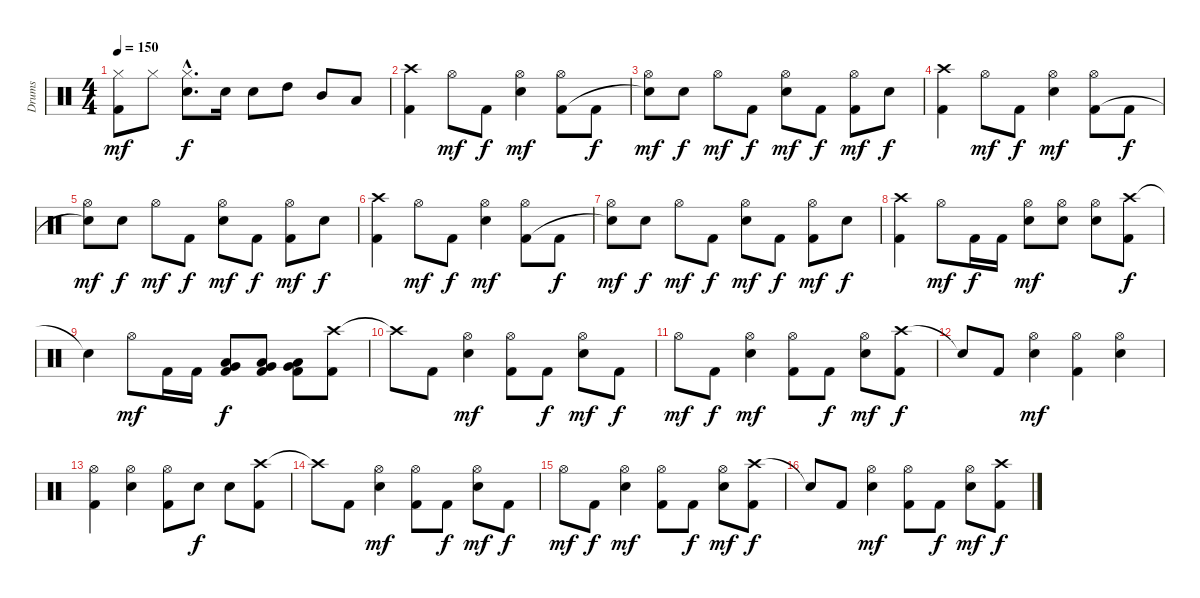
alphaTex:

\track ("Drums" "Drums") {instrument percussion}
\staff {score}
\articulation defaults
\ts (4 4)
\tempo 150
\clef neutral
\ks c
("Hi-Hat (closed)" "Kick (hit) 2").8{dy mf} "Hi-Hat (closed)".8 ("Hi-Hat (closed)"{hac} "Electric Snare (hit)"{hac}).8{d dy f} "Electric Snare (hit)".16 "Electric Snare (hit)".8 "High Tom (hit)".8 "Mid Tom (hit)".8 "Low Tom (hit)".8 |
("Crash high (hit)" "Kick (hit) 2").4 "Hi-Hat (open)".8{dy mf} "Kick (hit) 2".8{dy f} ("Hi-Hat (open)" "Electric Snare (hit)").4{dy mf} ("Hi-Hat (open)" "Kick (hit) 2").8 "Kick (hit) 2".8{dy f} |
("Hi-Hat (open)" "Snare (hit)"{t}).8{dy mf} "Electric Snare (hit)".8{dy f} "Hi-Hat (open)".8{dy mf} "Kick (hit) 2".8{dy f} ("Hi-Hat (open)" "Electric Snare (hit)").8{dy mf} "Kick (hit) 2".8{dy f} ("Hi-Hat (open)" "Kick (hit) 2").8{dy mf} "Electric Snare (hit)".8{dy f} |
("Crash high (hit)" "Kick (hit) 2").4 "Hi-Hat (open)".8{dy mf} "Kick (hit) 2".8{dy f} ("Hi-Hat (open)" "Electric Snare (hit)").4{dy mf} ("Hi-Hat (open)" "Kick (hit) 2").8 "Kick (hit) 2".8{dy f} |
("Hi-Hat (open)" "Snare (hit)"{t}).8{dy mf} "Electric Snare (hit)".8{dy f} "Hi-Hat (open)".8{dy mf} "Kick (hit) 2".8{dy f} ("Hi-Hat (open)" "Electric Snare (hit)").8{dy mf} "Kick (hit) 2".8{dy f} ("Hi-Hat (open)" "Kick (hit) 2").8{dy mf} "Electric Snare (hit)".8{dy f} |
("Crash high (hit)" "Kick (hit) 2").4 "Hi-Hat (open)".8{dy mf} "Kick (hit) 2".8{dy f} ("Hi-Hat (open)" "Electric Snare (hit)").4{dy mf} ("Hi-Hat (open)" "Kick (hit) 2").8 "Kick (hit) 2".8{dy f} |
("Hi-Hat (open)" "Snare (hit)"{t}).8{dy mf} "Electric Snare (hit)".8{dy f} "Hi-Hat (open)".8{dy mf} "Kick (hit) 2".8{dy f} ("Hi-Hat (open)" "Electric Snare (hit)").8{dy mf} "Kick (hit) 2".8{dy f} ("Hi-Hat (open)" "Kick (hit) 2").8{dy mf} "Electric Snare (hit)".8{dy f} |
("Crash high (hit)" "Kick (hit) 2").4 "Hi-Hat (open)".8{dy mf} "Kick (hit) 2".16{dy f} "Kick (hit) 2".16 ("Hi-Hat (open)" "Electric Snare (hit)").8{dy mf} ("Hi-Hat (open)" "Electric Snare (hit)").8 ("Hi-Hat (open)" "Electric Snare (hit)").8 ("Crash high (hit)" "Kick (hit) 2").8{dy f} |
"Snare (hit)"{t}.4 "Hi-Hat (open)".8{dy mf} "Kick (hit) 2".16 "Kick (hit) 2".16 ("Very Low Tom (hit)" "Low Floor Tom (hit)" "Kick (hit) 2").8{dy f} ("Very Low Tom (hit)" "Low Floor Tom (hit)" "Kick (hit) 2").8 ("Very Low Tom (hit)" "Low Floor Tom (hit)" "Kick (hit) 2").8 ("Crash high (hit)" "Kick (hit) 2").8 |
"Crash high (hit)"{t}.8 "Kick (hit) 2".8 ("Hi-Hat (open)" "Electric Snare (hit)").4{dy mf} ("Hi-Hat (open)" "Kick (hit) 2").8 "Kick (hit) 2".8{dy f} ("Hi-Hat (open)" "Electric Snare (hit)").8{dy mf} "Kick (hit) 2".8{dy f} |
"Hi-Hat (open)".8{dy mf} "Kick (hit) 2".8{dy f} ("Hi-Hat (open)" "Electric Snare (hit)").4{dy mf} ("Hi-Hat (open)" "Kick (hit) 2").8 "Kick (hit) 2".8{dy f} ("Hi-Hat (open)" "Electric Snare (hit)").8{dy mf} ("Crash high (hit)" "Kick (hit) 2").8{dy f} |
"Snare (hit)"{t}.8 "Kick (hit) 2".8 ("Hi-Hat (open)" "Electric Snare (hit)").4{dy mf} ("Hi-Hat (open)" "Kick (hit) 2").4 ("Hi-Hat (open)" "Electric Snare (hit)").4 |
("Hi-Hat (open)" "Kick (hit) 2").4 ("Hi-Hat (open)" "Electric Snare (hit)").4 ("Hi-Hat (open)" "Kick (hit) 2").8 "Electric Snare (hit)".8{dy f} "Electric Snare (hit)".8 ("Crash high (hit)" "Kick (hit) 2").8 |
"Crash high (hit)"{t}.8 "Kick (hit) 2".8 ("Hi-Hat (open)" "Electric Snare (hit)").4{dy mf} ("Hi-Hat (open)" "Kick (hit) 2").8 "Kick (hit) 2".8{dy f} ("Hi-Hat (open)" "Electric Snare (hit)").8{dy mf} "Kick (hit) 2".8{dy f} |
"Hi-Hat (open)".8{dy mf} "Kick (hit) 2".8{dy f} ("Hi-Hat (open)" "Electric Snare (hit)").4{dy mf} ("Hi-Hat (open)" "Kick (hit) 2").8 "Kick (hit) 2".8{dy f} ("Hi-Hat (open)" "Electric Snare (hit)").8{dy mf} ("Crash high (hit)" "Kick (hit) 2").8{dy f} |
"Snare (hit)"{t}.8 "Kick (hit) 2".8 ("Hi-Hat (open)" "Electric Snare (hit)").4{dy mf} ("Hi-Hat (open)" "Kick (hit) 2").8 "Kick (hit) 2".8{dy f} ("Hi-Hat (open)" "Electric Snare (hit)").8{dy mf} ("Crash high (hit)" "Kick (hit) 2").8{dy f}
